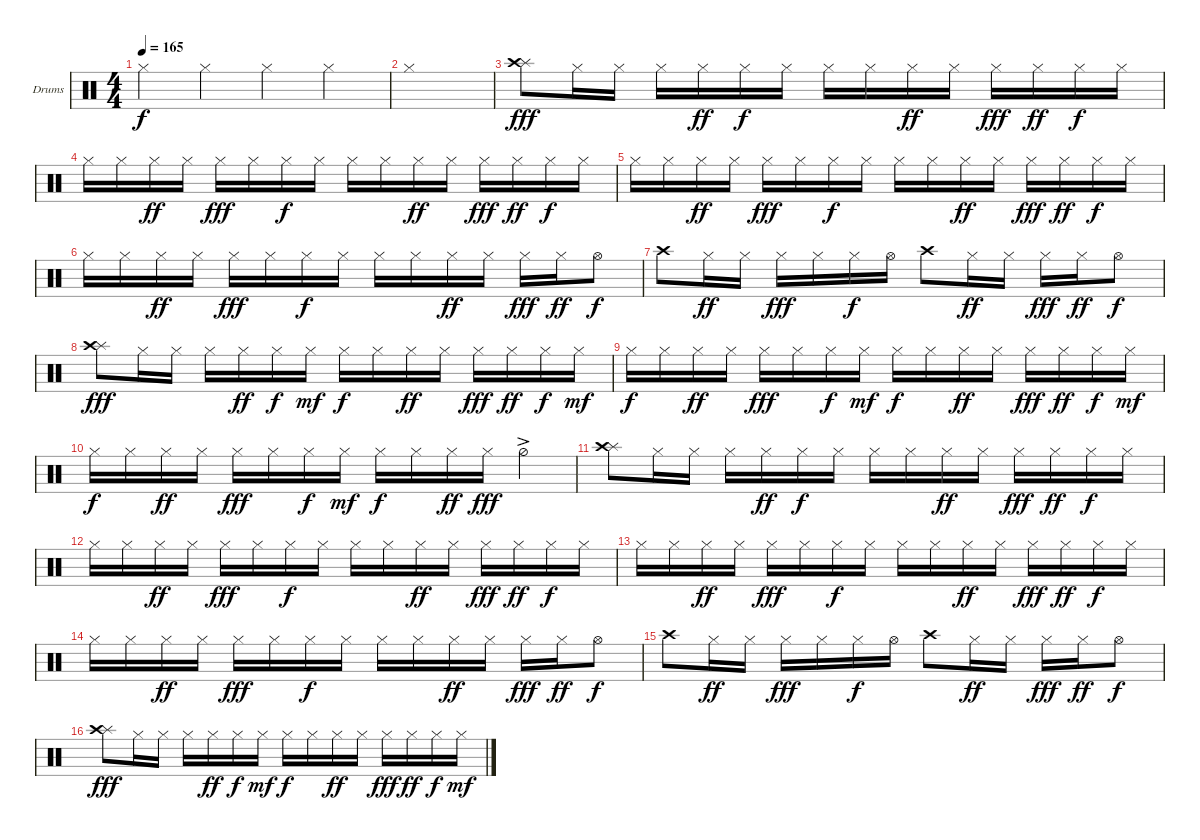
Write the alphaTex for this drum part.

\defaultSystemsLayout 4
\bracketExtendMode groupsimilarinstruments
\firstSystemTrackNameOrientation horizontal
\otherSystemsTrackNameOrientation horizontal
\track ("Helders" "Drums") {instrument percussion}
\staff {score}
\articulation defaults
\ts (4 4)
\tempo 165
\clef neutral
\ks c "Hi-Hat (closed)".4{dy f} "Hi-Hat (closed)".4 "Hi-Hat (closed)".4 "Hi-Hat (closed)".4
|
"Hi-Hat (closed)".1 |
("Splash (hit)" "Crash high (hit)").8{dy fff} "Hi-Hat (closed)".16 "Hi-Hat (closed)".16 "Hi-Hat (closed)".16 "Hi-Hat (closed)".16{dy ff} "Hi-Hat (closed)".16{dy f} "Hi-Hat (closed)".16 "Hi-Hat (closed)".16 "Hi-Hat (closed)".16 "Hi-Hat (closed)".16{dy ff} "Hi-Hat (closed)".16 "Hi-Hat (closed)".16{dy fff} "Hi-Hat (closed)".16{dy ff} "Hi-Hat (closed)".16{dy f} "Hi-Hat (closed)".16 |
"Hi-Hat (closed)".16 "Hi-Hat (closed)".16 "Hi-Hat (closed)".16{dy ff} "Hi-Hat (closed)".16 "Hi-Hat (closed)".16{dy fff} "Hi-Hat (closed)".16 "Hi-Hat (closed)".16{dy f} "Hi-Hat (closed)".16 "Hi-Hat (closed)".16 "Hi-Hat (closed)".16 "Hi-Hat (closed)".16{dy ff} "Hi-Hat (closed)".16 "Hi-Hat (closed)".16{dy fff} "Hi-Hat (closed)".16{dy ff} "Hi-Hat (closed)".16{dy f} "Hi-Hat (closed)".16 |
"Hi-Hat (closed)".16 "Hi-Hat (closed)".16 "Hi-Hat (closed)".16{dy ff} "Hi-Hat (closed)".16 "Hi-Hat (closed)".16{dy fff} "Hi-Hat (closed)".16 "Hi-Hat (closed)".16{dy f} "Hi-Hat (closed)".16 "Hi-Hat (closed)".16 "Hi-Hat (closed)".16 "Hi-Hat (closed)".16{dy ff} "Hi-Hat (closed)".16 "Hi-Hat (closed)".16{dy fff} "Hi-Hat (closed)".16{dy ff} "Hi-Hat (closed)".16{dy f} "Hi-Hat (closed)".16 |
"Hi-Hat (closed)".16 "Hi-Hat (closed)".16 "Hi-Hat (closed)".16{dy ff} "Hi-Hat (closed)".16 "Hi-Hat (closed)".16{dy fff} "Hi-Hat (closed)".16 "Hi-Hat (closed)".16{dy f} "Hi-Hat (closed)".16 "Hi-Hat (closed)".16 "Hi-Hat (closed)".16 "Hi-Hat (closed)".16{dy ff} "Hi-Hat (closed)".16 "Hi-Hat (closed)".16{dy fff} "Hi-Hat (closed)".16{dy ff} "Hi-Hat (open)".8{dy f} |
"Crash high (hit)".8 "Hi-Hat (closed)".16{dy ff} "Hi-Hat (closed)".16 "Hi-Hat (closed)".16{dy fff} "Hi-Hat (closed)".16 "Hi-Hat (closed)".16{dy f} "Hi-Hat (open)".16 "Crash high (hit)".8 "Hi-Hat (closed)".16{dy ff} "Hi-Hat (closed)".16 "Hi-Hat (closed)".16{dy fff} "Hi-Hat (closed)".16{dy ff} "Hi-Hat (open)".8{dy f} |
("Splash (hit)" "Crash high (hit)").8{dy fff} "Hi-Hat (closed)".16 "Hi-Hat (closed)".16 "Hi-Hat (closed)".16 "Hi-Hat (closed)".16{dy ff} "Hi-Hat (closed)".16{dy f} "Hi-Hat (closed)".16{dy mf} "Hi-Hat (closed)".16{dy f} "Hi-Hat (closed)".16 "Hi-Hat (closed)".16{dy ff} "Hi-Hat (closed)".16 "Hi-Hat (closed)".16{dy fff} "Hi-Hat (closed)".16{dy ff} "Hi-Hat (closed)".16{dy f} "Hi-Hat (closed)".16{dy mf} |
"Hi-Hat (closed)".16{dy f} "Hi-Hat (closed)".16 "Hi-Hat (closed)".16{dy ff} "Hi-Hat (closed)".16 "Hi-Hat (closed)".16{dy fff} "Hi-Hat (closed)".16 "Hi-Hat (closed)".16{dy f} "Hi-Hat (closed)".16{dy mf} "Hi-Hat (closed)".16{dy f} "Hi-Hat (closed)".16 "Hi-Hat (closed)".16{dy ff} "Hi-Hat (closed)".16 "Hi-Hat (closed)".16{dy fff} "Hi-Hat (closed)".16{dy ff} "Hi-Hat (closed)".16{dy f} "Hi-Hat (closed)".16{dy mf} |
"Hi-Hat (closed)".16{dy f} "Hi-Hat (closed)".16 "Hi-Hat (closed)".16{dy ff} "Hi-Hat (closed)".16 "Hi-Hat (closed)".16{dy fff} "Hi-Hat (closed)".16 "Hi-Hat (closed)".16{dy f} "Hi-Hat (closed)".16{dy mf} "Hi-Hat (closed)".16{dy f} "Hi-Hat (closed)".16 "Hi-Hat (closed)".16{dy ff} "Hi-Hat (closed)".16{dy fff} "Hi-Hat (half)"{ac}.4 |
("Splash (hit)" "Crash high (hit)").8 "Hi-Hat (closed)".16 "Hi-Hat (closed)".16 "Hi-Hat (closed)".16 "Hi-Hat (closed)".16{dy ff} "Hi-Hat (closed)".16{dy f} "Hi-Hat (closed)".16 "Hi-Hat (closed)".16 "Hi-Hat (closed)".16 "Hi-Hat (closed)".16{dy ff} "Hi-Hat (closed)".16 "Hi-Hat (closed)".16{dy fff} "Hi-Hat (closed)".16{dy ff} "Hi-Hat (closed)".16{dy f} "Hi-Hat (closed)".16 |
"Hi-Hat (closed)".16 "Hi-Hat (closed)".16 "Hi-Hat (closed)".16{dy ff} "Hi-Hat (closed)".16 "Hi-Hat (closed)".16{dy fff} "Hi-Hat (closed)".16 "Hi-Hat (closed)".16{dy f} "Hi-Hat (closed)".16 "Hi-Hat (closed)".16 "Hi-Hat (closed)".16 "Hi-Hat (closed)".16{dy ff} "Hi-Hat (closed)".16 "Hi-Hat (closed)".16{dy fff} "Hi-Hat (closed)".16{dy ff} "Hi-Hat (closed)".16{dy f} "Hi-Hat (closed)".16 |
"Hi-Hat (closed)".16 "Hi-Hat (closed)".16 "Hi-Hat (closed)".16{dy ff} "Hi-Hat (closed)".16 "Hi-Hat (closed)".16{dy fff} "Hi-Hat (closed)".16 "Hi-Hat (closed)".16{dy f} "Hi-Hat (closed)".16 "Hi-Hat (closed)".16 "Hi-Hat (closed)".16 "Hi-Hat (closed)".16{dy ff} "Hi-Hat (closed)".16 "Hi-Hat (closed)".16{dy fff} "Hi-Hat (closed)".16{dy ff} "Hi-Hat (closed)".16{dy f} "Hi-Hat (closed)".16 |
"Hi-Hat (closed)".16 "Hi-Hat (closed)".16 "Hi-Hat (closed)".16{dy ff} "Hi-Hat (closed)".16 "Hi-Hat (closed)".16{dy fff} "Hi-Hat (closed)".16 "Hi-Hat (closed)".16{dy f} "Hi-Hat (closed)".16 "Hi-Hat (closed)".16 "Hi-Hat (closed)".16 "Hi-Hat (closed)".16{dy ff} "Hi-Hat (closed)".16 "Hi-Hat (closed)".16{dy fff} "Hi-Hat (closed)".16{dy ff} "Hi-Hat (open)".8{dy f} |
"Crash high (hit)".8 "Hi-Hat (closed)".16{dy ff} "Hi-Hat (closed)".16 "Hi-Hat (closed)".16{dy fff} "Hi-Hat (closed)".16 "Hi-Hat (closed)".16{dy f} "Hi-Hat (open)".16 "Crash high (hit)".8 "Hi-Hat (closed)".16{dy ff} "Hi-Hat (closed)".16 "Hi-Hat (closed)".16{dy fff} "Hi-Hat (closed)".16{dy ff} "Hi-Hat (open)".8{dy f} |
("Splash (hit)" "Crash high (hit)").8{dy fff} "Hi-Hat (closed)".16 "Hi-Hat (closed)".16 "Hi-Hat (closed)".16 "Hi-Hat (closed)".16{dy ff} "Hi-Hat (closed)".16{dy f} "Hi-Hat (closed)".16{dy mf} "Hi-Hat (closed)".16{dy f} "Hi-Hat (closed)".16 "Hi-Hat (closed)".16{dy ff} "Hi-Hat (closed)".16 "Hi-Hat (closed)".16{dy fff} "Hi-Hat (closed)".16{dy ff} "Hi-Hat (closed)".16{dy f} "Hi-Hat (closed)".16{dy mf}
